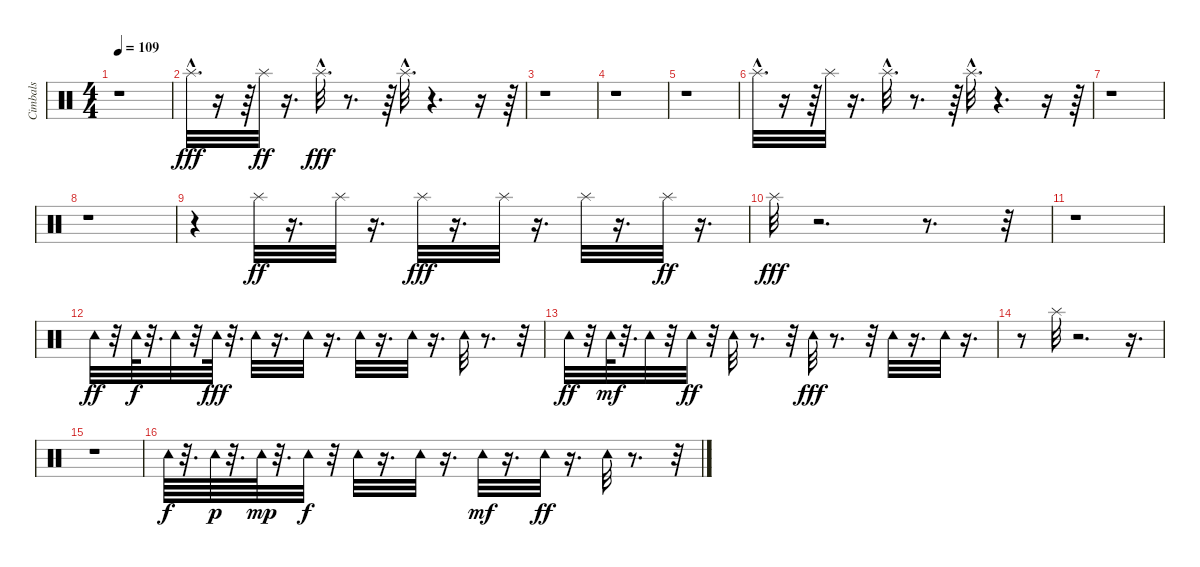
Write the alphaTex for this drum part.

\track ("Cimbals" "Cimbals") {instrument percussion}
\staff {score}
\articulation defaults
\ts (4 4)
\tempo 109
\clef neutral
\ks c
r.1{dy fff} |
"Splash (hit)"{hac}.32{d} r.16 r.64 "Splash (hit)".32{dy ff} r.16{d} "Splash (hit)"{hac}.32{d dy fff} r.8{d} r.64 "Splash (hit)"{hac}.32{d} r.4{d} r.16 r.64 |
r.1 |
r.1 |
r.1 |
"Splash (hit)"{hac}.32{d} r.16 r.64 "Splash (hit)".32 r.16{d} "Splash (hit)"{hac}.32{d} r.8{d} r.64 "Splash (hit)"{hac}.32{d} r.4{d} r.16 r.64 |
r.1 |
r.1 |
r.4 "Splash (hit)".32{dy ff} r.16{d} "Splash (hit)".32 r.16{d} "Splash (hit)".32{dy fff} r.16{d} "Splash (hit)".32 r.16{d} "Splash (hit)".32 r.16{d} "Splash (hit)".32{dy ff} r.16{d} |
"Splash (hit)".32{dy fff} r.2{d} r.8{d} r.32 |
r.1 |
"Tambourine (hit)".32{dy ff} r.32 "Tambourine (hit)".64{dy f} r.32{d} "Tambourine (hit)".32 r.32 "Tambourine (hit)".64{dy fff} r.32{d} "Tambourine (hit)".32 r.16{d} "Tambourine (hit)".32 r.16{d} "Tambourine (hit)".32 r.16{d} "Tambourine (hit)".32 r.16{d} "Tambourine (hit)".32 r.8{d} r.32 |
"Tambourine (hit)".32{dy ff} r.32 "Tambourine (hit)".64{dy mf} r.32{d} "Tambourine (hit)".32 r.32 "Tambourine (hit)".32{dy ff} r.32 "Tambourine (hit)".32 r.8{d} r.32 "Tambourine (hit)".32{dy fff} r.8{d} r.32 "Tambourine (hit)".32 r.16{d} "Tambourine (hit)".32 r.16{d} |
r.8 "Splash (hit)".32 r.2{d} r.16{d} |
r.1 |
"Tambourine (hit)".64{dy f} r.32{d} "Tambourine (hit)".64{dy p} r.32{d} "Tambourine (hit)".64{dy mp} r.32{d} "Tambourine (hit)".32{dy f} r.32 "Tambourine (hit)".32 r.16{d} "Tambourine (hit)".32 r.16{d} "Tambourine (hit)".32{dy mf} r.16{d} "Tambourine (hit)".32{dy ff} r.16{d} "Tambourine (hit)".32 r.8{d} r.32
